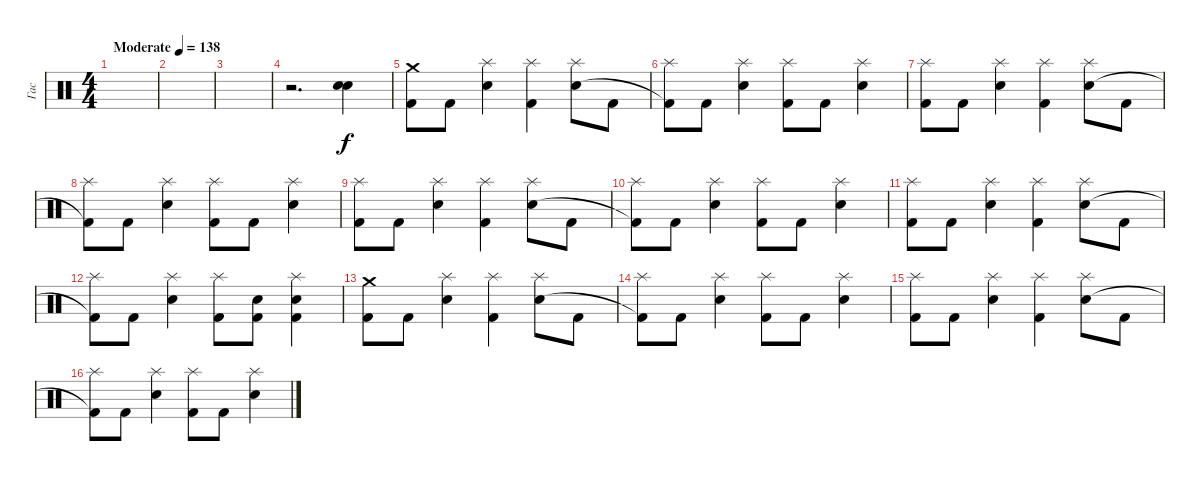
\track ("Гас" "Гас") {instrument percussion}
\staff {score}
\articulation defaults
\ts (4 4)
\tempo (138 "Moderate")
\clef neutral
\ks c
|
|
|
r.2{d} ("Electric Snare (hit)" "Snare (hit) 2").4 |
("Crash medium (hit)" "Kick (hit) 2").8 "Kick (hit) 2".8 ("Splash (hit)" "Electric Snare (hit)").4 ("Splash (hit)" "Kick (hit) 2").4 ("Splash (hit)" "Electric Snare (hit)").8 "Kick (hit) 2".8 |
("Splash (hit)" "Kick (hit) 2"{t}).8 "Kick (hit) 2".8 ("Splash (hit)" "Electric Snare (hit)").4 ("Splash (hit)" "Kick (hit) 2").8 "Kick (hit) 2".8 ("Splash (hit)" "Electric Snare (hit)").4 |
("Splash (hit)" "Kick (hit) 2").8 "Kick (hit) 2".8 ("Splash (hit)" "Electric Snare (hit)").4 ("Splash (hit)" "Kick (hit) 2").4 ("Splash (hit)" "Electric Snare (hit)").8 "Kick (hit) 2".8 |
("Splash (hit)" "Kick (hit) 2"{t}).8 "Kick (hit) 2".8 ("Splash (hit)" "Electric Snare (hit)").4 ("Splash (hit)" "Kick (hit) 2").8 "Kick (hit) 2".8 ("Splash (hit)" "Electric Snare (hit)").4 |
("Splash (hit)" "Kick (hit) 2").8 "Kick (hit) 2".8 ("Splash (hit)" "Electric Snare (hit)").4 ("Splash (hit)" "Kick (hit) 2").4 ("Splash (hit)" "Electric Snare (hit)").8 "Kick (hit) 2".8 |
("Splash (hit)" "Kick (hit) 2"{t}).8 "Kick (hit) 2".8 ("Splash (hit)" "Electric Snare (hit)").4 ("Splash (hit)" "Kick (hit) 2").8 "Kick (hit) 2".8 ("Splash (hit)" "Electric Snare (hit)").4 |
("Splash (hit)" "Kick (hit) 2").8 "Kick (hit) 2".8 ("Splash (hit)" "Electric Snare (hit)").4 ("Splash (hit)" "Kick (hit) 2").4 ("Splash (hit)" "Electric Snare (hit)").8 "Kick (hit) 2".8 |
("Splash (hit)" "Kick (hit) 2"{t}).8 "Kick (hit) 2".8 ("Splash (hit)" "Electric Snare (hit)").4 ("Splash (hit)" "Kick (hit) 2").8 ("Electric Snare (hit)" "Kick (hit) 2").8 ("Splash (hit)" "Electric Snare (hit)" "Kick (hit) 2").4 |
("Crash medium (hit)" "Kick (hit) 2").8 "Kick (hit) 2".8 ("Splash (hit)" "Electric Snare (hit)").4 ("Splash (hit)" "Kick (hit) 2").4 ("Splash (hit)" "Electric Snare (hit)").8 "Kick (hit) 2".8 |
("Splash (hit)" "Kick (hit) 2"{t}).8 "Kick (hit) 2".8 ("Splash (hit)" "Electric Snare (hit)").4 ("Splash (hit)" "Kick (hit) 2").8 "Kick (hit) 2".8 ("Splash (hit)" "Electric Snare (hit)").4 |
("Splash (hit)" "Kick (hit) 2").8 "Kick (hit) 2".8 ("Splash (hit)" "Electric Snare (hit)").4 ("Splash (hit)" "Kick (hit) 2").4 ("Splash (hit)" "Electric Snare (hit)").8 "Kick (hit) 2".8 |
("Splash (hit)" "Kick (hit) 2"{t}).8 "Kick (hit) 2".8 ("Splash (hit)" "Electric Snare (hit)").4 ("Splash (hit)" "Kick (hit) 2").8 "Kick (hit) 2".8 ("Splash (hit)" "Electric Snare (hit)").4
